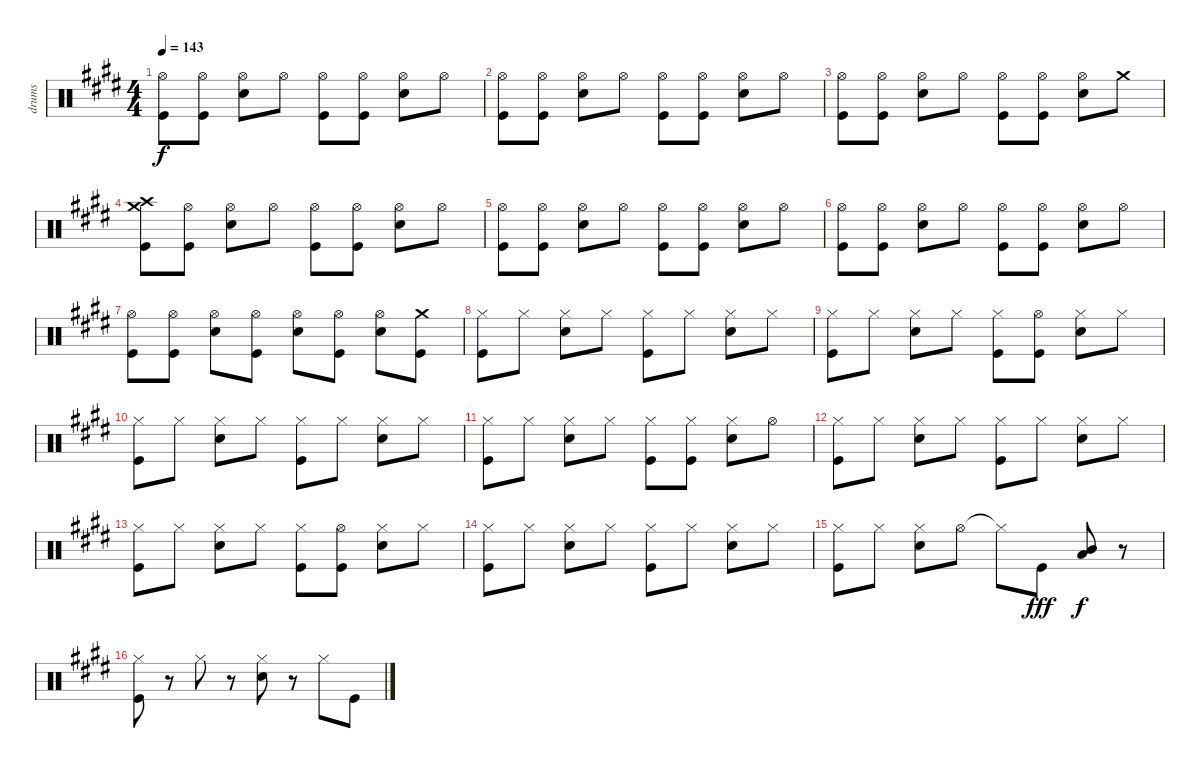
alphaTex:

\track ("drums" "drums") {instrument percussion}
\staff {score}
\articulation defaults
\ts (4 4)
\tempo 143
\clef neutral
\ks c#minor
("Hi-Hat (open)" "Kick (hit)").8{dy f} ("Hi-Hat (open)" "Kick (hit)").8 ("Hi-Hat (open)" "Electric Snare (hit)").8 "Hi-Hat (open)".8 ("Hi-Hat (open)" "Kick (hit)").8 ("Hi-Hat (open)" "Kick (hit)").8 ("Hi-Hat (open)" "Electric Snare (hit)").8 "Hi-Hat (open)".8 |
("Hi-Hat (open)" "Kick (hit)").8 ("Hi-Hat (open)" "Kick (hit)").8 ("Hi-Hat (open)" "Electric Snare (hit)").8 "Hi-Hat (open)".8 ("Hi-Hat (open)" "Kick (hit)").8 ("Hi-Hat (open)" "Kick (hit)").8 ("Hi-Hat (open)" "Electric Snare (hit)").8 "Hi-Hat (open)".8 |
("Hi-Hat (open)" "Kick (hit)").8 ("Hi-Hat (open)" "Kick (hit)").8 ("Hi-Hat (open)" "Electric Snare (hit)").8 "Hi-Hat (open)".8 ("Hi-Hat (open)" "Kick (hit)").8 ("Hi-Hat (open)" "Kick (hit)").8 ("Hi-Hat (open)" "Electric Snare (hit)").8 "Crash medium (hit)".8 |
("Crash medium (hit)" "Crash high (hit)" "Kick (hit)").8 ("Hi-Hat (open)" "Kick (hit)").8 ("Hi-Hat (open)" "Electric Snare (hit)").8 "Hi-Hat (open)".8 ("Hi-Hat (open)" "Kick (hit)").8 ("Hi-Hat (open)" "Kick (hit)").8 ("Hi-Hat (open)" "Electric Snare (hit)").8 "Hi-Hat (open)".8 |
("Hi-Hat (open)" "Kick (hit)").8 ("Hi-Hat (open)" "Kick (hit)").8 ("Hi-Hat (open)" "Electric Snare (hit)").8 "Hi-Hat (open)".8 ("Hi-Hat (open)" "Kick (hit)").8 ("Hi-Hat (open)" "Kick (hit)").8 ("Hi-Hat (open)" "Electric Snare (hit)").8 "Hi-Hat (open)".8 |
("Hi-Hat (open)" "Kick (hit)").8 ("Hi-Hat (open)" "Kick (hit)").8 ("Hi-Hat (open)" "Electric Snare (hit)").8 "Hi-Hat (open)".8 ("Hi-Hat (open)" "Kick (hit)").8 ("Hi-Hat (open)" "Kick (hit)").8 ("Hi-Hat (open)" "Electric Snare (hit)").8 "Hi-Hat (open)".8 |
("Hi-Hat (open)" "Kick (hit)").8 ("Hi-Hat (open)" "Kick (hit)").8 ("Hi-Hat (open)" "Electric Snare (hit)").8 ("Hi-Hat (open)" "Kick (hit)").8 ("Hi-Hat (open)" "Electric Snare (hit)").8 ("Hi-Hat (open)" "Kick (hit)").8 ("Hi-Hat (open)" "Electric Snare (hit)").8 ("Crash medium (hit)" "Kick (hit)").8 |
("Hi-Hat (closed)" "Kick (hit)").8 "Hi-Hat (closed)".8 ("Hi-Hat (closed)" "Electric Snare (hit)").8 "Hi-Hat (closed)".8 ("Hi-Hat (closed)" "Kick (hit)").8 "Hi-Hat (closed)".8 ("Hi-Hat (closed)" "Electric Snare (hit)").8 "Hi-Hat (closed)".8 |
("Hi-Hat (closed)" "Kick (hit)").8 "Hi-Hat (closed)".8 ("Hi-Hat (closed)" "Electric Snare (hit)").8 "Hi-Hat (closed)".8 ("Hi-Hat (closed)" "Kick (hit)").8 ("Hi-Hat (open)" "Kick (hit)").8 ("Hi-Hat (closed)" "Electric Snare (hit)").8 "Hi-Hat (closed)".8 |
("Hi-Hat (closed)" "Kick (hit)").8 "Hi-Hat (closed)".8 ("Hi-Hat (closed)" "Electric Snare (hit)").8 "Hi-Hat (closed)".8 ("Hi-Hat (closed)" "Kick (hit)").8 "Hi-Hat (closed)".8 ("Hi-Hat (closed)" "Electric Snare (hit)").8 "Hi-Hat (closed)".8 |
("Hi-Hat (closed)" "Kick (hit)").8 "Hi-Hat (closed)".8 ("Hi-Hat (closed)" "Electric Snare (hit)").8 "Hi-Hat (closed)".8 ("Hi-Hat (closed)" "Kick (hit)").8 ("Hi-Hat (closed)" "Kick (hit)").8 ("Hi-Hat (closed)" "Electric Snare (hit)").8 "Hi-Hat (open)".8 |
("Hi-Hat (closed)" "Kick (hit)").8 "Hi-Hat (closed)".8 ("Hi-Hat (closed)" "Electric Snare (hit)").8 "Hi-Hat (closed)".8 ("Hi-Hat (closed)" "Kick (hit)").8 "Hi-Hat (closed)".8 ("Hi-Hat (closed)" "Electric Snare (hit)").8 "Hi-Hat (closed)".8 |
("Hi-Hat (closed)" "Kick (hit)").8 "Hi-Hat (closed)".8 ("Hi-Hat (closed)" "Electric Snare (hit)").8 "Hi-Hat (closed)".8 ("Hi-Hat (closed)" "Kick (hit)").8 ("Hi-Hat (open)" "Kick (hit)").8 ("Hi-Hat (closed)" "Electric Snare (hit)").8 "Hi-Hat (closed)".8 |
("Hi-Hat (closed)" "Kick (hit)").8 "Hi-Hat (closed)".8 ("Hi-Hat (closed)" "Electric Snare (hit)").8 "Hi-Hat (closed)".8 ("Hi-Hat (closed)" "Kick (hit)").8 "Hi-Hat (closed)".8 ("Hi-Hat (closed)" "Electric Snare (hit)").8 "Hi-Hat (closed)".8 |
("Hi-Hat (closed)" "Kick (hit)").8 "Hi-Hat (closed)".8 ("Hi-Hat (closed)" "Electric Snare (hit)").8 "Hi-Hat (open)".8 "Hi-Hat (closed)"{t}.8 "Kick (hit)".8{dy fff} ("Mid Tom (hit)" "Low Tom (hit)").8{dy f} r.8 |
("Hi-Hat (closed)" "Kick (hit)").8 r.8 "Hi-Hat (closed)".8 r.8 ("Hi-Hat (closed)" "Electric Snare (hit)").8 r.8 "Hi-Hat (closed)".8 "Kick (hit)".8
